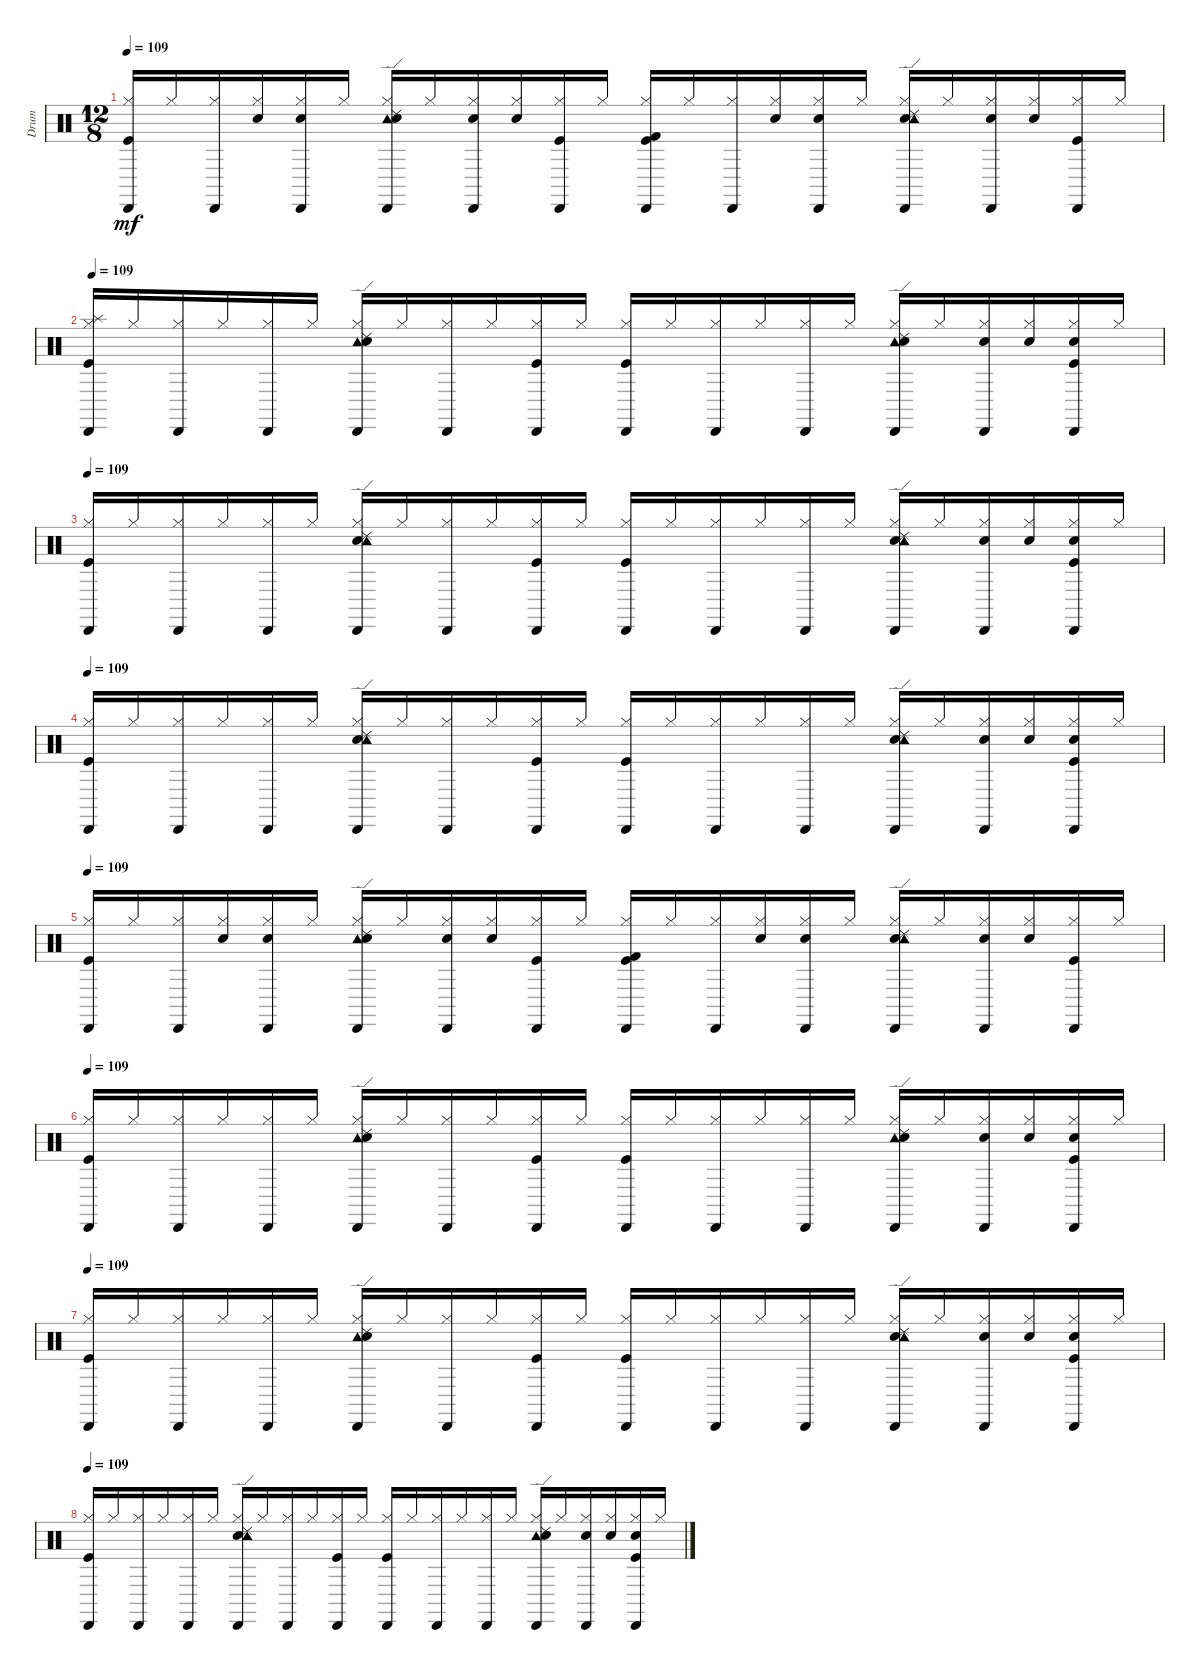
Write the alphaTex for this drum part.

\track ("Drum" "Drum") {instrument percussion}
\staff {score}
\articulation defaults
\ts (12 8)
\tempo 109
\clef neutral
\ks c
("Cabasa (hit)" "Kick (hit)" "Hi-Hat (closed)").16{dy mf} "Hi-Hat (closed)".16 ("Cabasa (hit)" "Hi-Hat (closed)").16 ("Electric Snare (hit)" "Hi-Hat (closed)").16 ("Cabasa (hit)" "Electric Snare (hit)" "Hi-Hat (closed)").16 "Hi-Hat (closed)".16 ("Cabasa (hit)" "Tambourine (hit)" "Snare (hit) 2" "Hi-Hat (closed)" "Ride (edge) 2").16 "Hi-Hat (closed)".16 ("Cabasa (hit)" "Electric Snare (hit)" "Hi-Hat (closed)").16 ("Hi-Hat (closed)" "Electric Snare (hit)").16 ("Kick (hit)" "Hi-Hat (closed)" "Cabasa (hit)").16 "Hi-Hat (closed)".16 ("Cabasa (hit)" "Kick (hit)" "Kick (hit) 2" "Hi-Hat (closed)").16 "Hi-Hat (closed)".16 ("Hi-Hat (closed)" "Cabasa (hit)").16 ("Hi-Hat (closed)" "Electric Snare (hit)").16 ("Cabasa (hit)" "Electric Snare (hit)" "Hi-Hat (closed)").16 "Hi-Hat (closed)".16 ("Ride (edge) 2" "Hi-Hat (closed)" "Snare (hit) 2" "Cabasa (hit)" "Tambourine (hit)").16 "Hi-Hat (closed)".16 ("Cabasa (hit)" "Hi-Hat (closed)" "Electric Snare (hit)").16 ("Hi-Hat (closed)" "Electric Snare (hit)").16 ("Kick (hit)" "Hi-Hat (closed)" "Cabasa (hit)").16 "Hi-Hat (closed)".16 |
\tempo 109
("Splash (hit)" "Cabasa (hit)" "Kick (hit)" "Hi-Hat (closed)").16 "Hi-Hat (closed)".16 ("Cabasa (hit)" "Hi-Hat (closed)").16 "Hi-Hat (closed)".16 ("Cabasa (hit)" "Hi-Hat (closed)").16 "Hi-Hat (closed)".16 ("Ride (edge) 2" "Cabasa (hit)" "Tambourine (hit)" "Snare (hit) 2" "Hi-Hat (closed)").16 "Hi-Hat (closed)".16 ("Cabasa (hit)" "Hi-Hat (closed)").16 "Hi-Hat (closed)".16 ("Kick (hit)" "Cabasa (hit)" "Hi-Hat (closed)").16 "Hi-Hat (closed)".16 ("Cabasa (hit)" "Kick (hit)" "Hi-Hat (closed)").16 "Hi-Hat (closed)".16 ("Cabasa (hit)" "Hi-Hat (closed)").16 "Hi-Hat (closed)".16 ("Cabasa (hit)" "Hi-Hat (closed)").16 "Hi-Hat (closed)".16 ("Ride (edge) 2" "Cabasa (hit)" "Tambourine (hit)" "Snare (hit) 2" "Hi-Hat (closed)").16 "Hi-Hat (closed)".16 ("Electric Snare (hit)" "Cabasa (hit)" "Hi-Hat (closed)").16 ("Electric Snare (hit)" "Hi-Hat (closed)").16 ("Electric Snare (hit)" "Kick (hit)" "Cabasa (hit)" "Hi-Hat (closed)").16 "Hi-Hat (closed)".16 |
\tempo 109
("Hi-Hat (closed)" "Kick (hit)" "Cabasa (hit)").16 "Hi-Hat (closed)".16 ("Hi-Hat (closed)" "Cabasa (hit)").16 "Hi-Hat (closed)".16 ("Hi-Hat (closed)" "Cabasa (hit)").16 "Hi-Hat (closed)".16 ("Hi-Hat (closed)" "Snare (hit) 2" "Tambourine (hit)" "Cabasa (hit)" "Ride (edge) 2").16 "Hi-Hat (closed)".16 ("Hi-Hat (closed)" "Cabasa (hit)").16 "Hi-Hat (closed)".16 ("Hi-Hat (closed)" "Cabasa (hit)" "Kick (hit)").16 "Hi-Hat (closed)".16 ("Hi-Hat (closed)" "Kick (hit)" "Cabasa (hit)").16 "Hi-Hat (closed)".16 ("Hi-Hat (closed)" "Cabasa (hit)").16 "Hi-Hat (closed)".16 ("Hi-Hat (closed)" "Cabasa (hit)").16 "Hi-Hat (closed)".16 ("Hi-Hat (closed)" "Snare (hit) 2" "Tambourine (hit)" "Cabasa (hit)" "Ride (edge) 2").16 "Hi-Hat (closed)".16 ("Hi-Hat (closed)" "Cabasa (hit)" "Electric Snare (hit)").16 ("Hi-Hat (closed)" "Electric Snare (hit)").16 ("Hi-Hat (closed)" "Cabasa (hit)" "Kick (hit)" "Electric Snare (hit)").16 "Hi-Hat (closed)".16 |
\tempo 109
("Hi-Hat (closed)" "Kick (hit)" "Cabasa (hit)").16 "Hi-Hat (closed)".16 ("Hi-Hat (closed)" "Cabasa (hit)").16 "Hi-Hat (closed)".16 ("Hi-Hat (closed)" "Cabasa (hit)").16 "Hi-Hat (closed)".16 ("Hi-Hat (closed)" "Snare (hit) 2" "Tambourine (hit)" "Cabasa (hit)" "Ride (edge) 2").16 "Hi-Hat (closed)".16 ("Hi-Hat (closed)" "Cabasa (hit)").16 "Hi-Hat (closed)".16 ("Hi-Hat (closed)" "Cabasa (hit)" "Kick (hit)").16 "Hi-Hat (closed)".16 ("Hi-Hat (closed)" "Kick (hit)" "Cabasa (hit)").16 "Hi-Hat (closed)".16 ("Hi-Hat (closed)" "Cabasa (hit)").16 "Hi-Hat (closed)".16 ("Hi-Hat (closed)" "Cabasa (hit)").16 "Hi-Hat (closed)".16 ("Hi-Hat (closed)" "Snare (hit) 2" "Tambourine (hit)" "Cabasa (hit)" "Ride (edge) 2").16 "Hi-Hat (closed)".16 ("Hi-Hat (closed)" "Cabasa (hit)" "Electric Snare (hit)").16 ("Hi-Hat (closed)" "Electric Snare (hit)").16 ("Hi-Hat (closed)" "Cabasa (hit)" "Kick (hit)" "Electric Snare (hit)").16 "Hi-Hat (closed)".16 |
\tempo 109
("Cabasa (hit)" "Kick (hit)" "Hi-Hat (closed)").16 "Hi-Hat (closed)".16 ("Cabasa (hit)" "Hi-Hat (closed)").16 ("Electric Snare (hit)" "Hi-Hat (closed)").16 ("Cabasa (hit)" "Electric Snare (hit)" "Hi-Hat (closed)").16 "Hi-Hat (closed)".16 ("Cabasa (hit)" "Tambourine (hit)" "Snare (hit) 2" "Hi-Hat (closed)" "Ride (edge) 2").16 "Hi-Hat (closed)".16 ("Cabasa (hit)" "Electric Snare (hit)" "Hi-Hat (closed)").16 ("Hi-Hat (closed)" "Electric Snare (hit)").16 ("Kick (hit)" "Hi-Hat (closed)" "Cabasa (hit)").16 "Hi-Hat (closed)".16 ("Cabasa (hit)" "Kick (hit)" "Kick (hit) 2" "Hi-Hat (closed)").16 "Hi-Hat (closed)".16 ("Hi-Hat (closed)" "Cabasa (hit)").16 ("Hi-Hat (closed)" "Electric Snare (hit)").16 ("Cabasa (hit)" "Electric Snare (hit)" "Hi-Hat (closed)").16 "Hi-Hat (closed)".16 ("Ride (edge) 2" "Hi-Hat (closed)" "Snare (hit) 2" "Cabasa (hit)" "Tambourine (hit)").16 "Hi-Hat (closed)".16 ("Cabasa (hit)" "Hi-Hat (closed)" "Electric Snare (hit)").16 ("Hi-Hat (closed)" "Electric Snare (hit)").16 ("Kick (hit)" "Hi-Hat (closed)" "Cabasa (hit)").16 "Hi-Hat (closed)".16 |
\tempo 109
("Cabasa (hit)" "Kick (hit)" "Hi-Hat (closed)").16 "Hi-Hat (closed)".16 ("Cabasa (hit)" "Hi-Hat (closed)").16 "Hi-Hat (closed)".16 ("Cabasa (hit)" "Hi-Hat (closed)").16 "Hi-Hat (closed)".16 ("Ride (edge) 2" "Cabasa (hit)" "Tambourine (hit)" "Snare (hit) 2" "Hi-Hat (closed)").16 "Hi-Hat (closed)".16 ("Cabasa (hit)" "Hi-Hat (closed)").16 "Hi-Hat (closed)".16 ("Kick (hit)" "Cabasa (hit)" "Hi-Hat (closed)").16 "Hi-Hat (closed)".16 ("Cabasa (hit)" "Kick (hit)" "Hi-Hat (closed)").16 "Hi-Hat (closed)".16 ("Cabasa (hit)" "Hi-Hat (closed)").16 "Hi-Hat (closed)".16 ("Cabasa (hit)" "Hi-Hat (closed)").16 "Hi-Hat (closed)".16 ("Ride (edge) 2" "Cabasa (hit)" "Tambourine (hit)" "Snare (hit) 2" "Hi-Hat (closed)").16 "Hi-Hat (closed)".16 ("Electric Snare (hit)" "Cabasa (hit)" "Hi-Hat (closed)").16 ("Electric Snare (hit)" "Hi-Hat (closed)").16 ("Electric Snare (hit)" "Kick (hit)" "Cabasa (hit)" "Hi-Hat (closed)").16 "Hi-Hat (closed)".16 |
\tempo 109
("Hi-Hat (closed)" "Kick (hit)" "Cabasa (hit)").16 "Hi-Hat (closed)".16 ("Cabasa (hit)" "Hi-Hat (closed)").16 "Hi-Hat (closed)".16 ("Hi-Hat (closed)" "Cabasa (hit)").16 "Hi-Hat (closed)".16 ("Tambourine (hit)" "Snare (hit) 2" "Cabasa (hit)" "Hi-Hat (closed)" "Ride (edge) 2").16 "Hi-Hat (closed)".16 ("Cabasa (hit)" "Hi-Hat (closed)").16 "Hi-Hat (closed)".16 ("Kick (hit)" "Hi-Hat (closed)" "Cabasa (hit)").16 "Hi-Hat (closed)".16 ("Cabasa (hit)" "Kick (hit)" "Hi-Hat (closed)").16 "Hi-Hat (closed)".16 ("Cabasa (hit)" "Hi-Hat (closed)").16 "Hi-Hat (closed)".16 ("Hi-Hat (closed)" "Cabasa (hit)").16 "Hi-Hat (closed)".16 ("Ride (edge) 2" "Snare (hit) 2" "Tambourine (hit)" "Cabasa (hit)" "Hi-Hat (closed)").16 "Hi-Hat (closed)".16 ("Cabasa (hit)" "Hi-Hat (closed)" "Electric Snare (hit)").16 ("Electric Snare (hit)" "Hi-Hat (closed)").16 ("Electric Snare (hit)" "Cabasa (hit)" "Kick (hit)" "Hi-Hat (closed)").16 "Hi-Hat (closed)".16 |
\tempo 109
("Hi-Hat (closed)" "Kick (hit)" "Cabasa (hit)").16 "Hi-Hat (closed)".16 ("Cabasa (hit)" "Hi-Hat (closed)").16 "Hi-Hat (closed)".16 ("Cabasa (hit)" "Hi-Hat (closed)").16 "Hi-Hat (closed)".16 ("Cabasa (hit)" "Snare (hit) 2" "Hi-Hat (closed)" "Tambourine (hit)" "Ride (edge) 2").16 "Hi-Hat (closed)".16 ("Cabasa (hit)" "Hi-Hat (closed)").16 "Hi-Hat (closed)".16 ("Cabasa (hit)" "Hi-Hat (closed)" "Kick (hit)").16 "Hi-Hat (closed)".16 ("Kick (hit)" "Hi-Hat (closed)" "Cabasa (hit)").16 "Hi-Hat (closed)".16 ("Cabasa (hit)" "Hi-Hat (closed)").16 "Hi-Hat (closed)".16 ("Hi-Hat (closed)" "Cabasa (hit)").16 "Hi-Hat (closed)".16 ("Tambourine (hit)" "Cabasa (hit)" "Snare (hit) 2" "Ride (edge) 2" "Hi-Hat (closed)").16 "Hi-Hat (closed)".16 ("Hi-Hat (closed)" "Electric Snare (hit)" "Cabasa (hit)").16 ("Hi-Hat (closed)" "Electric Snare (hit)").16 ("Cabasa (hit)" "Hi-Hat (closed)" "Electric Snare (hit)" "Kick (hit)").16 "Hi-Hat (closed)".16
